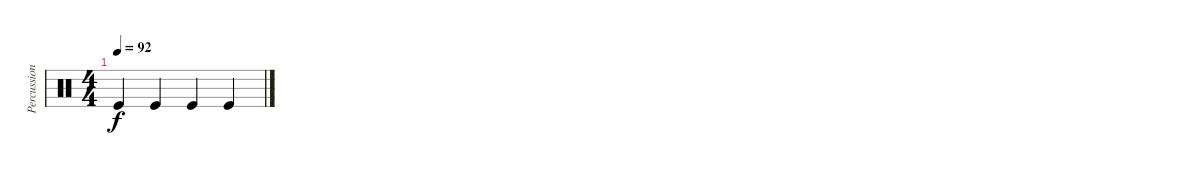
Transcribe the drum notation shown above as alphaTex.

\track ("Percussion" "Percussion") {instrument percussion}
\staff {score}
\articulation defaults
\ts (4 4)
\tempo 92
\clef neutral
\ks c "Kick (hit)".4{dy f} "Kick (hit)".4 "Kick (hit)".4 "Kick (hit)".4
